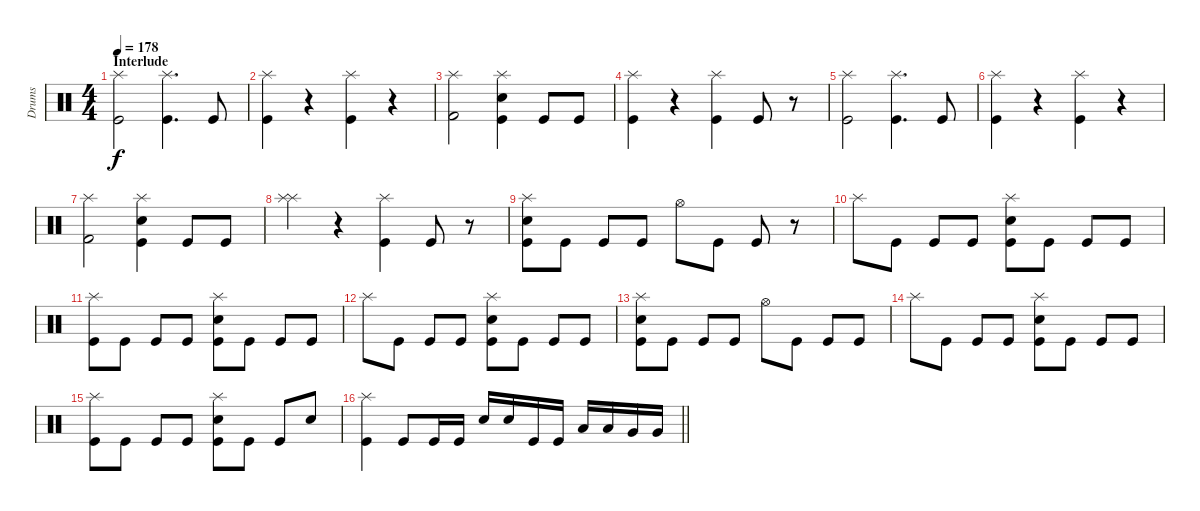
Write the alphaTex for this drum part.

\track ("Drums" "Drums") {instrument percussion}
\staff {score}
\articulation defaults
\ts (4 4)
\section ("" "Interlude")
\tempo 178
\clef neutral
\ks c
("Splash (hit)" "Kick (hit)").2{dy f} ("Splash (hit)" "Kick (hit)").4{d} "Kick (hit)".8 |
("Splash (hit)" "Kick (hit)").4 r.4 ("Splash (hit)" "Kick (hit)").4 r.4 |
("Splash (hit)" "Kick (hit) 2").2 ("Splash (hit)" "Snare (hit) 2" "Kick (hit)").4 "Kick (hit)".8 "Kick (hit)".8 |
("Splash (hit)" "Kick (hit)").4 r.4 ("Splash (hit)" "Kick (hit)").4 "Kick (hit)".8 r.8 |
("Splash (hit)" "Kick (hit)").2 ("Splash (hit)" "Kick (hit)").4{d} "Kick (hit)".8 |
("Splash (hit)" "Kick (hit)").4 r.4 ("Splash (hit)" "Kick (hit)").4 r.4 |
("Splash (hit)" "Kick (hit) 2").2 ("Splash (hit)" "Snare (hit) 2" "Kick (hit)").4 "Kick (hit)".8 "Kick (hit)".8 |
("Splash (hit)" "Splash (hit)").4 r.4 ("Splash (hit)" "Kick (hit)").4 "Kick (hit)".8 r.8 |
("Splash (hit)" "Snare (hit) 2" "Kick (hit)").8 "Kick (hit)".8 "Kick (hit)".8 "Kick (hit)".8 "Hi-Hat (open)".8 "Kick (hit)".8 "Kick (hit)".8 r.8 |
"Splash (hit)".8 "Kick (hit)".8 "Kick (hit)".8 "Kick (hit)".8 ("Splash (hit)" "Snare (hit) 2" "Kick (hit)").8 "Kick (hit)".8 "Kick (hit)".8 "Kick (hit)".8 |
("Splash (hit)" "Kick (hit)").8 "Kick (hit)".8 "Kick (hit)".8 "Kick (hit)".8 ("Splash (hit)" "Snare (hit) 2" "Kick (hit)").8 "Kick (hit)".8 "Kick (hit)".8 "Kick (hit)".8 |
"Splash (hit)".8 "Kick (hit)".8 "Kick (hit)".8 "Kick (hit)".8 ("Splash (hit)" "Snare (hit) 2" "Kick (hit)").8 "Kick (hit)".8 "Kick (hit)".8 "Kick (hit)".8 |
("Splash (hit)" "Snare (hit) 2" "Kick (hit)").8 "Kick (hit)".8 "Kick (hit)".8 "Kick (hit)".8 "Hi-Hat (open)".8 "Kick (hit)".8 "Kick (hit)".8 "Kick (hit)".8 |
"Splash (hit)".8 "Kick (hit)".8 "Kick (hit)".8 "Kick (hit)".8 ("Splash (hit)" "Snare (hit) 2" "Kick (hit)").8 "Kick (hit)".8 "Kick (hit)".8 "Kick (hit)".8 |
("Splash (hit)" "Kick (hit)").8 "Kick (hit)".8 "Kick (hit)".8 "Kick (hit)".8 ("Splash (hit)" "Snare (hit) 2" "Kick (hit)").8 "Kick (hit)".8 "Kick (hit)".8 "Snare (hit) 2".8 |
\barLineRight lightlight
("Splash (hit)" "Kick (hit)").4 "Kick (hit)".8 "Kick (hit)".16 "Kick (hit)".16 "Snare (hit) 2".16 "Snare (hit) 2".16 "Kick (hit)".16 "Kick (hit)".16 "Low Tom (hit)".16 "Low Tom (hit)".16 "Very Low Tom (hit)".16 "Very Low Tom (hit)".16
